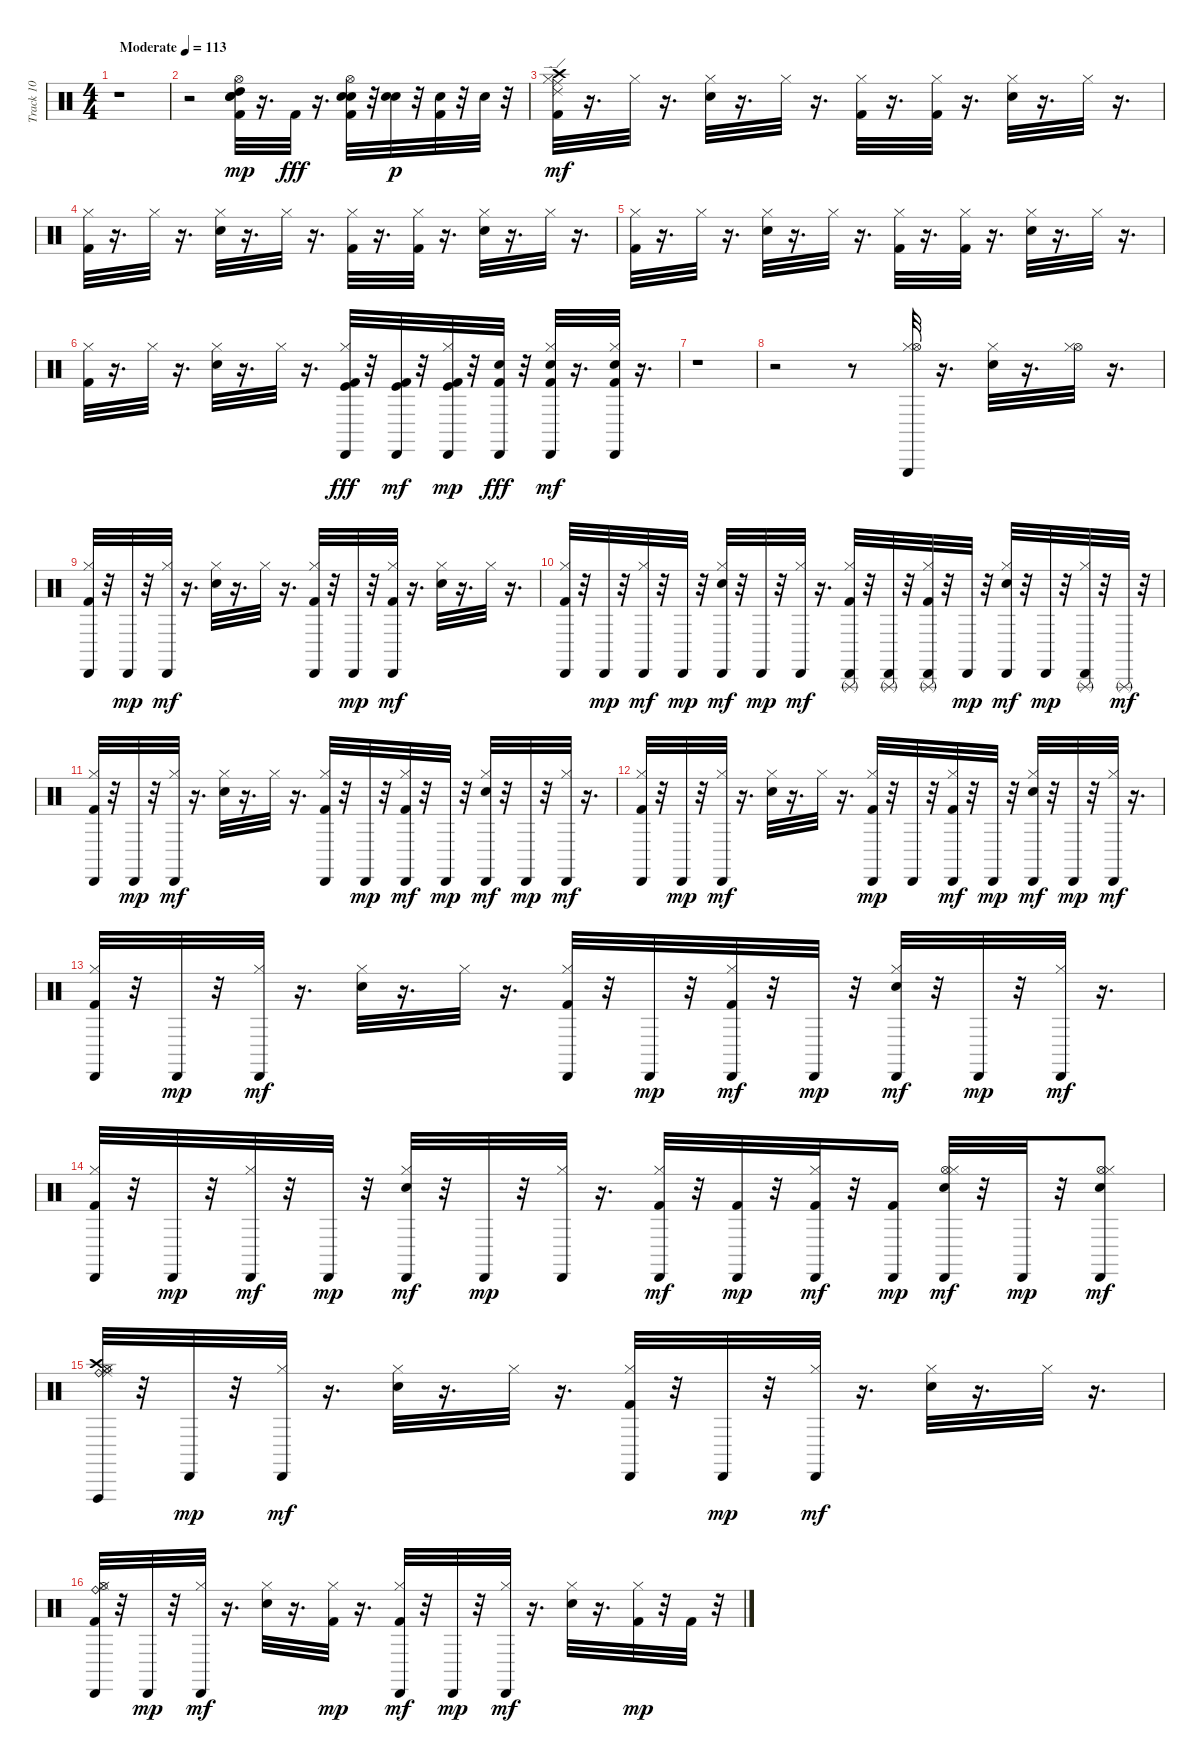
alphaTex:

\track ("Track 10" "Track 10") {instrument percussion}
\staff {score}
\articulation defaults
\ts (4 4)
\tempo (113 "Moderate")
\clef neutral
\ks c
r.1{dy mp} |
r.2 ("Hi-Hat (open)" "Kick (hit) 2" "Electric Snare (hit)" "Snare (hit) 2" "High Tom (hit)").32 r.16{d} "Kick (hit) 2".32{dy fff} r.16{d} ("Hi-Hat (open)" "Electric Snare (hit)" "Kick (hit) 2" "Snare (hit) 2").32 r.32 ("Electric Snare (hit)" "Snare (hit) 2").32{dy p} r.32 ("Kick (hit) 2" "Electric Snare (hit)").32 r.32 "Electric Snare (hit)".32 r.32 |
("Ride (middle)" "Ride (edge) 2" "Hi-Hat (closed)" "Crash high (hit)" "Kick (hit) 2").32{dy mf} r.16{d} "Hi-Hat (closed)".32 r.16{d} ("Hi-Hat (closed)" "Snare (hit) 2").32 r.16{d} "Hi-Hat (closed)".32 r.16{d} ("Hi-Hat (closed)" "Kick (hit) 2").32 r.16{d} ("Hi-Hat (closed)" "Kick (hit) 2").32 r.16{d} ("Hi-Hat (closed)" "Snare (hit) 2").32 r.16{d} "Hi-Hat (closed)".32 r.16{d} |
("Hi-Hat (closed)" "Kick (hit) 2").32 r.16{d} "Hi-Hat (closed)".32 r.16{d} ("Hi-Hat (closed)" "Snare (hit) 2").32 r.16{d} "Hi-Hat (closed)".32 r.16{d} ("Hi-Hat (closed)" "Kick (hit) 2").32 r.16{d} ("Kick (hit) 2" "Hi-Hat (closed)").32 r.16{d} ("Hi-Hat (closed)" "Snare (hit) 2").32 r.16{d} "Hi-Hat (closed)".32 r.16{d} |
("Hi-Hat (closed)" "Kick (hit) 2").32 r.16{d} "Hi-Hat (closed)".32 r.16{d} ("Hi-Hat (closed)" "Snare (hit) 2").32 r.16{d} "Hi-Hat (closed)".32 r.16{d} ("Hi-Hat (closed)" "Kick (hit) 2").32 r.16{d} ("Hi-Hat (closed)" "Kick (hit) 2").32 r.16{d} ("Hi-Hat (closed)" "Snare (hit) 2").32 r.16{d} "Hi-Hat (closed)".32 r.16{d} |
("Hi-Hat (closed)" "Kick (hit) 2").32 r.16{d} "Hi-Hat (closed)".32 r.16{d} ("Snare (hit) 2" "Hi-Hat (closed)").32 r.16{d} "Hi-Hat (closed)".32 r.16{d} ("Cabasa (hit)" "Kick (hit)" "Hi-Hat (closed)" "Kick (hit) 2").32{dy fff} r.32 ("Cabasa (hit)" "Kick (hit) 2" "Kick (hit)").32{dy mf} r.32 ("Cabasa (hit)" "Kick (hit) 2" "Hi-Hat (closed)" "Kick (hit)").32{dy mp} r.32 ("Cabasa (hit)" "Kick (hit) 2" "Snare (hit) 2").32{dy fff} r.32 ("Cabasa (hit)" "Kick (hit) 2" "Hi-Hat (closed)" "Snare (hit) 2").32{dy mf} r.16{d} ("Cabasa (hit)" "Kick (hit) 2" "Hi-Hat (closed)" "Snare (hit) 2").32 r.16{d} |
r.1 |
r.2 r.8 ("Hi-Hat (closed)" "Hi-Hat (open)" "Triangle (hit)").32 r.16{d} ("Hi-Hat (closed)" "Snare (hit) 2").32 r.16{d} ("Hi-Hat (open)" "Hi-Hat (closed)").32 r.16{d} |
("Cabasa (hit)" "Hi-Hat (closed)" "Kick (hit) 2").32 r.32 "Cabasa (hit)".32{dy mp} r.32 ("Cabasa (hit)" "Hi-Hat (closed)").32{dy mf} r.16{d} ("Snare (hit) 2" "Hi-Hat (closed)").32 r.16{d} "Hi-Hat (closed)".32 r.16{d} ("Cabasa (hit)" "Kick (hit) 2" "Hi-Hat (closed)").32 r.32 "Cabasa (hit)".32{dy mp} r.32 ("Cabasa (hit)" "Kick (hit) 2" "Hi-Hat (closed)").32{dy mf} r.16{d} ("Snare (hit) 2" "Hi-Hat (closed)").32 r.16{d} "Hi-Hat (closed)".32 r.16{d} |
("Kick (hit) 2" "Cabasa (hit)" "Hi-Hat (closed)").32 r.32 "Cabasa (hit)".32{dy mp} r.32 ("Cabasa (hit)" "Hi-Hat (closed)").32{dy mf} r.32 "Cabasa (hit)".32{dy mp} r.32 ("Cabasa (hit)" "Snare (hit) 2" "Hi-Hat (closed)").32{dy mf} r.32 "Cabasa (hit)".32{dy mp} r.32 ("Cabasa (hit)" "Hi-Hat (closed)").32{dy mf} r.16{d} ("Cabasa (hit)" "Hi-Hat (closed)" "Kick (hit) 2" "Triangle (rnute)").32 r.32 ("Cabasa (hit)" "Triangle (rnute)").32 r.32 ("Hi-Hat (closed)" "Cabasa (hit)" "Triangle (rnute)" "Kick (hit) 2").32 r.32 "Cabasa (hit)".32{dy mp} r.32 ("Cabasa (hit)" "Hi-Hat (closed)" "Snare (hit) 2").32{dy mf} r.32 "Cabasa (hit)".32{dy mp} r.32 ("Triangle (rnute)" "Hi-Hat (closed)" "Cabasa (hit)").32 r.32 "Triangle (rnute)".32{dy mf} r.32 |
("Cabasa (hit)" "Hi-Hat (closed)" "Kick (hit) 2").32 r.32 "Cabasa (hit)".32{dy mp} r.32 ("Cabasa (hit)" "Hi-Hat (closed)").32{dy mf} r.16{d} ("Hi-Hat (closed)" "Snare (hit) 2").32 r.16{d} "Hi-Hat (closed)".32 r.16{d} ("Cabasa (hit)" "Hi-Hat (closed)" "Kick (hit) 2").32 r.32 "Cabasa (hit)".32{dy mp} r.32 ("Cabasa (hit)" "Hi-Hat (closed)" "Kick (hit) 2").32{dy mf} r.32 "Cabasa (hit)".32{dy mp} r.32 ("Cabasa (hit)" "Hi-Hat (closed)" "Snare (hit) 2").32{dy mf} r.32 "Cabasa (hit)".32{dy mp} r.32 ("Cabasa (hit)" "Hi-Hat (closed)").32{dy mf} r.16{d} |
("Cabasa (hit)" "Hi-Hat (closed)" "Kick (hit) 2").32 r.32 "Cabasa (hit)".32{dy mp} r.32 ("Cabasa (hit)" "Hi-Hat (closed)").32{dy mf} r.16{d} ("Hi-Hat (closed)" "Snare (hit) 2").32 r.16{d} "Hi-Hat (closed)".32 r.16{d} ("Hi-Hat (closed)" "Kick (hit) 2" "Cabasa (hit)").32{dy mp} r.32 "Cabasa (hit)".32 r.32 ("Cabasa (hit)" "Hi-Hat (closed)" "Kick (hit) 2").32{dy mf} r.32 "Cabasa (hit)".32{dy mp} r.32 ("Cabasa (hit)" "Hi-Hat (closed)" "Snare (hit) 2").32{dy mf} r.32 "Cabasa (hit)".32{dy mp} r.32 ("Cabasa (hit)" "Hi-Hat (closed)").32{dy mf} r.16{d} |
("Cabasa (hit)" "Hi-Hat (closed)" "Kick (hit) 2").32 r.32 "Cabasa (hit)".32{dy mp} r.32 ("Cabasa (hit)" "Hi-Hat (closed)").32{dy mf} r.16{d} ("Hi-Hat (closed)" "Snare (hit) 2").32 r.16{d} "Hi-Hat (closed)".32 r.16{d} ("Cabasa (hit)" "Hi-Hat (closed)" "Kick (hit) 2").32 r.32 "Cabasa (hit)".32{dy mp} r.32 ("Cabasa (hit)" "Hi-Hat (closed)" "Kick (hit) 2").32{dy mf} r.32 "Cabasa (hit)".32{dy mp} r.32 ("Cabasa (hit)" "Hi-Hat (closed)" "Snare (hit) 2").32{dy mf} r.32 "Cabasa (hit)".32{dy mp} r.32 ("Cabasa (hit)" "Hi-Hat (closed)").32{dy mf} r.16{d} |
("Cabasa (hit)" "Hi-Hat (closed)" "Kick (hit) 2").32 r.32 "Cabasa (hit)".32{dy mp} r.32 ("Cabasa (hit)" "Hi-Hat (closed)").32{dy mf} r.32 "Cabasa (hit)".32{dy mp} r.32 ("Cabasa (hit)" "Hi-Hat (closed)" "Snare (hit) 2").32{dy mf} r.32 "Cabasa (hit)".32{dy mp} r.32 ("Hi-Hat (closed)" "Cabasa (hit)").32 r.16{d} ("Cabasa (hit)" "Hi-Hat (closed)" "Kick (hit) 2").32{dy mf} r.32 ("Cabasa (hit)" "Kick (hit) 2").32{dy mp} r.32 ("Cabasa (hit)" "Hi-Hat (closed)" "Kick (hit) 2").32{dy mf} r.32 ("Cabasa (hit)" "Kick (hit) 2").16{dy mp} ("Cabasa (hit)" "Hi-Hat (open)" "Hi-Hat (closed)" "Snare (hit) 2").32{dy mf} r.32 "Cabasa (hit)".32{dy mp} r.32 ("Cabasa (hit)" "Hi-Hat (open)" "Snare (hit) 2" "Hi-Hat (closed)").8{dy mf} |
("Hi-Hat (open)" "Ride (bell)" "Vibraslap (hit)" "Crash high (hit)" "Ride (middle)" "Hi-Hat (closed)").32 r.32 "Cabasa (hit)".32{dy mp} r.32 ("Cabasa (hit)" "Hi-Hat (closed)").32{dy mf} r.16{d} ("Snare (hit) 2" "Hi-Hat (closed)").32 r.16{d} "Hi-Hat (closed)".32 r.16{d} ("Cabasa (hit)" "Hi-Hat (closed)" "Kick (hit) 2").32 r.32 "Cabasa (hit)".32{dy mp} r.32 ("Cabasa (hit)" "Hi-Hat (closed)").32{dy mf} r.16{d} ("Hi-Hat (closed)" "Snare (hit) 2").32 r.16{d} "Hi-Hat (closed)".32 r.16{d} |
("Hi-Hat (open)" "Ride (bell)" "Cabasa (hit)" "Hi-Hat (closed)" "Kick (hit) 2").32 r.32 "Cabasa (hit)".32{dy mp} r.32 ("Cabasa (hit)" "Hi-Hat (closed)").32{dy mf} r.16{d} ("Hi-Hat (closed)" "Snare (hit) 2").32 r.16{d} ("Hi-Hat (closed)" "Kick (hit) 2").32{dy mp} r.16{d} ("Cabasa (hit)" "Hi-Hat (closed)" "Kick (hit) 2").32{dy mf} r.32 "Cabasa (hit)".32{dy mp} r.32 ("Cabasa (hit)" "Hi-Hat (closed)").32{dy mf} r.16{d} ("Hi-Hat (closed)" "Snare (hit) 2").32 r.16{d} ("Hi-Hat (closed)" "Kick (hit) 2").32{dy mp} r.32 "Kick (hit) 2".32 r.32
